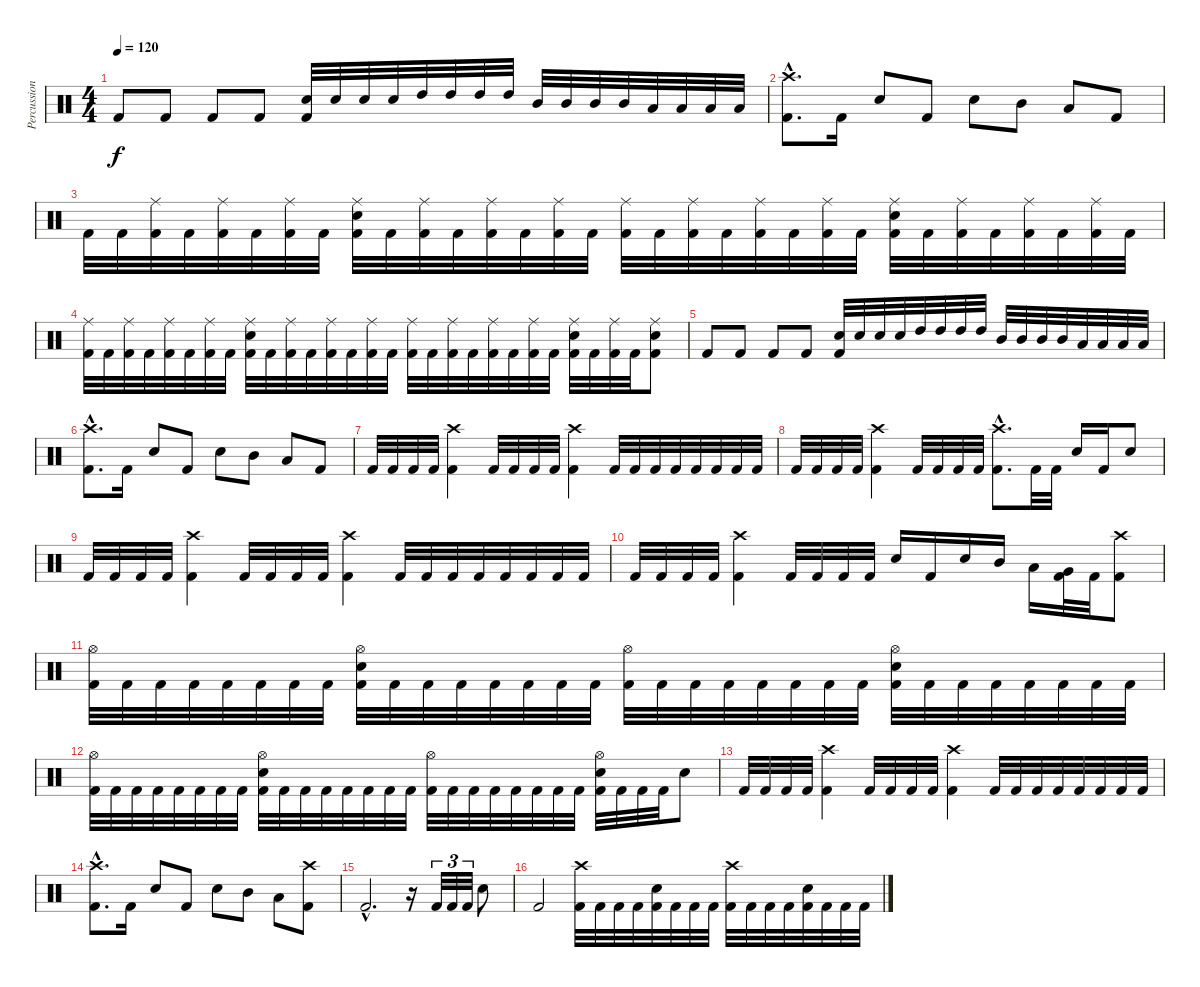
\track ("Percussion" "Percussion") {instrument percussion}
\staff {score}
\articulation defaults
\ts (4 4)
\tempo 120
\clef neutral
\ks c "Kick (hit) 2".8{dy f} "Kick (hit) 2".8 "Kick (hit) 2".8 "Kick (hit) 2".8
("Snare (hit) 2" "Kick (hit) 2").32 "Snare (hit) 2".32 "Snare (hit) 2".32 "Snare (hit) 2".32 "High Tom (hit)".32 "High Tom (hit)".32 "High Tom (hit)".32 "High Tom (hit)".32 "Mid Tom (hit)".32 "Mid Tom (hit)".32 "Mid Tom (hit)".32 "Mid Tom (hit)".32 "Low Tom (hit)".32 "Low Tom (hit)".32 "Low Tom (hit)".32 "Low Tom (hit)".32 |
("Crash high (hit)"{hac} "Kick (hit) 2"{hac}).8{d} "Kick (hit) 2".16 "Snare (hit) 2".8 "Kick (hit) 2".8 "Snare (hit) 2".8 "Mid Tom (hit)".8 "Low Tom (hit)".8 "Kick (hit) 2".8 |
"Kick (hit) 2".32 "Kick (hit) 2".32 ("Ride (middle)" "Kick (hit) 2").32 "Kick (hit) 2".32 ("Ride (middle)" "Kick (hit) 2").32 "Kick (hit) 2".32 ("Ride (middle)" "Kick (hit) 2").32 "Kick (hit) 2".32 ("Ride (middle)" "Snare (hit) 2" "Kick (hit) 2").32 "Kick (hit) 2".32 ("Ride (middle)" "Kick (hit) 2").32 "Kick (hit) 2".32 ("Ride (middle)" "Kick (hit) 2").32 "Kick (hit) 2".32 ("Ride (middle)" "Kick (hit) 2").32 "Kick (hit) 2".32 ("Ride (middle)" "Kick (hit) 2").32 "Kick (hit) 2".32 ("Ride (middle)" "Kick (hit) 2").32 "Kick (hit) 2".32 ("Ride (middle)" "Kick (hit) 2").32 "Kick (hit) 2".32 ("Ride (middle)" "Kick (hit) 2").32 "Kick (hit) 2".32 ("Ride (middle)" "Snare (hit) 2" "Kick (hit) 2").32 "Kick (hit) 2".32 ("Ride (middle)" "Kick (hit) 2").32 "Kick (hit) 2".32 ("Ride (middle)" "Kick (hit) 2").32 "Kick (hit) 2".32 ("Ride (middle)" "Kick (hit) 2").32 "Kick (hit) 2".32 |
("Ride (middle)" "Kick (hit) 2").32 "Kick (hit) 2".32 ("Ride (middle)" "Kick (hit) 2").32 "Kick (hit) 2".32 ("Ride (middle)" "Kick (hit) 2").32 "Kick (hit) 2".32 ("Ride (middle)" "Kick (hit) 2").32 "Kick (hit) 2".32 ("Ride (middle)" "Snare (hit) 2" "Kick (hit) 2").32 "Kick (hit) 2".32 ("Ride (middle)" "Kick (hit) 2").32 "Kick (hit) 2".32 ("Ride (middle)" "Kick (hit) 2").32 "Kick (hit) 2".32 ("Ride (middle)" "Kick (hit) 2").32 "Kick (hit) 2".32 ("Ride (middle)" "Kick (hit) 2").32 "Kick (hit) 2".32 ("Ride (middle)" "Kick (hit) 2").32 "Kick (hit) 2".32 ("Ride (middle)" "Kick (hit) 2").32 "Kick (hit) 2".32 ("Ride (middle)" "Kick (hit) 2").32 "Kick (hit) 2".32 ("Ride (middle)" "Snare (hit) 2" "Kick (hit) 2").32 "Kick (hit) 2".32 ("Ride (middle)" "Kick (hit) 2").32 "Kick (hit) 2".32 ("Ride (middle)" "Snare (hit) 2" "Kick (hit) 2").8 |
"Kick (hit) 2".8 "Kick (hit) 2".8 "Kick (hit) 2".8 "Kick (hit) 2".8 ("Snare (hit) 2" "Kick (hit) 2").32 "Snare (hit) 2".32 "Snare (hit) 2".32 "Snare (hit) 2".32 "High Tom (hit)".32 "High Tom (hit)".32 "High Tom (hit)".32 "High Tom (hit)".32 "Mid Tom (hit)".32 "Mid Tom (hit)".32 "Mid Tom (hit)".32 "Mid Tom (hit)".32 "Low Tom (hit)".32 "Low Tom (hit)".32 "Low Tom (hit)".32 "Low Tom (hit)".32 |
("Crash high (hit)"{hac} "Kick (hit) 2"{hac}).8{d} "Kick (hit) 2".16 "Snare (hit) 2".8 "Kick (hit) 2".8 "Snare (hit) 2".8 "Mid Tom (hit)".8 "Low Tom (hit)".8 "Kick (hit) 2".8 |
"Kick (hit) 2".32 "Kick (hit) 2".32 "Kick (hit) 2".32 "Kick (hit) 2".32 ("Crash high (hit)" "Kick (hit) 2").4 "Kick (hit) 2".32 "Kick (hit) 2".32 "Kick (hit) 2".32 "Kick (hit) 2".32 ("Crash high (hit)" "Kick (hit) 2").4 "Kick (hit) 2".32 "Kick (hit) 2".32 "Kick (hit) 2".32 "Kick (hit) 2".32 "Kick (hit) 2".32 "Kick (hit) 2".32 "Kick (hit) 2".32 "Kick (hit) 2".32 |
"Kick (hit) 2".32 "Kick (hit) 2".32 "Kick (hit) 2".32 "Kick (hit) 2".32 ("Crash high (hit)" "Kick (hit) 2").4 "Kick (hit) 2".32 "Kick (hit) 2".32 "Kick (hit) 2".32 "Kick (hit) 2".32 ("Crash high (hit)"{hac} "Kick (hit) 2"{hac}).8{d} "Kick (hit) 2".32 "Kick (hit) 2".32 "Snare (hit) 2".16 "Kick (hit) 2".16 "Snare (hit) 2".8 |
"Kick (hit) 2".32 "Kick (hit) 2".32 "Kick (hit) 2".32 "Kick (hit) 2".32 ("Crash high (hit)" "Kick (hit) 2").4 "Kick (hit) 2".32 "Kick (hit) 2".32 "Kick (hit) 2".32 "Kick (hit) 2".32 ("Crash high (hit)" "Kick (hit) 2").4 "Kick (hit) 2".32 "Kick (hit) 2".32 "Kick (hit) 2".32 "Kick (hit) 2".32 "Kick (hit) 2".32 "Kick (hit) 2".32 "Kick (hit) 2".32 "Kick (hit) 2".32 |
"Kick (hit) 2".32 "Kick (hit) 2".32 "Kick (hit) 2".32 "Kick (hit) 2".32 ("Crash high (hit)" "Kick (hit) 2").4 "Kick (hit) 2".32 "Kick (hit) 2".32 "Kick (hit) 2".32 "Kick (hit) 2".32 "Snare (hit) 2".16 "Kick (hit) 2".16 "Snare (hit) 2".16 "Mid Tom (hit)".16 "Low Tom (hit)".16 ("Very Low Tom (hit)" "Kick (hit) 2").32 "Kick (hit) 2".32 ("Crash high (hit)" "Kick (hit) 2").8 |
("Hi-Hat (open)" "Kick (hit) 2").32 "Kick (hit) 2".32 "Kick (hit) 2".32 "Kick (hit) 2".32 "Kick (hit) 2".32 "Kick (hit) 2".32 "Kick (hit) 2".32 "Kick (hit) 2".32 ("Hi-Hat (open)" "Snare (hit) 2" "Kick (hit) 2").32 "Kick (hit) 2".32 "Kick (hit) 2".32 "Kick (hit) 2".32 "Kick (hit) 2".32 "Kick (hit) 2".32 "Kick (hit) 2".32 "Kick (hit) 2".32 ("Hi-Hat (open)" "Kick (hit) 2").32 "Kick (hit) 2".32 "Kick (hit) 2".32 "Kick (hit) 2".32 "Kick (hit) 2".32 "Kick (hit) 2".32 "Kick (hit) 2".32 "Kick (hit) 2".32 ("Hi-Hat (open)" "Snare (hit) 2" "Kick (hit) 2").32 "Kick (hit) 2".32 "Kick (hit) 2".32 "Kick (hit) 2".32 "Kick (hit) 2".32 "Kick (hit) 2".32 "Kick (hit) 2".32 "Kick (hit) 2".32 |
("Hi-Hat (open)" "Kick (hit) 2").32 "Kick (hit) 2".32 "Kick (hit) 2".32 "Kick (hit) 2".32 "Kick (hit) 2".32 "Kick (hit) 2".32 "Kick (hit) 2".32 "Kick (hit) 2".32 ("Hi-Hat (open)" "Snare (hit) 2" "Kick (hit) 2").32 "Kick (hit) 2".32 "Kick (hit) 2".32 "Kick (hit) 2".32 "Kick (hit) 2".32 "Kick (hit) 2".32 "Kick (hit) 2".32 "Kick (hit) 2".32 ("Hi-Hat (open)" "Kick (hit) 2").32 "Kick (hit) 2".32 "Kick (hit) 2".32 "Kick (hit) 2".32 "Kick (hit) 2".32 "Kick (hit) 2".32 "Kick (hit) 2".32 "Kick (hit) 2".32 ("Hi-Hat (open)" "Snare (hit) 2" "Kick (hit) 2").32 "Kick (hit) 2".32 "Kick (hit) 2".32 "Kick (hit) 2".32 "Snare (hit) 2".8 |
"Kick (hit) 2".32 "Kick (hit) 2".32 "Kick (hit) 2".32 "Kick (hit) 2".32 ("Crash high (hit)" "Kick (hit) 2").4 "Kick (hit) 2".32 "Kick (hit) 2".32 "Kick (hit) 2".32 "Kick (hit) 2".32 ("Crash high (hit)" "Kick (hit) 2").4 "Kick (hit) 2".32 "Kick (hit) 2".32 "Kick (hit) 2".32 "Kick (hit) 2".32 "Kick (hit) 2".32 "Kick (hit) 2".32 "Kick (hit) 2".32 "Kick (hit) 2".32 |
("Crash high (hit)"{hac} "Kick (hit) 2"{hac}).8{d} "Kick (hit) 2".16 "Snare (hit) 2".8 "Kick (hit) 2".8 "Snare (hit) 2".8 "Mid Tom (hit)".8 "Low Tom (hit)".8 ("Crash high (hit)" "Kick (hit) 2").8 |
"Kick (hit) 2"{hac}.2{d} r.16 "Kick (hit) 2".32{tu (3 2)} "Kick (hit) 2".32{tu (3 2)} "Kick (hit) 2".32{tu (3 2)} "Snare (hit) 2".8 |
"Kick (hit) 2".2 ("Crash high (hit)" "Kick (hit) 2").32 "Kick (hit) 2".32 "Kick (hit) 2".32 "Kick (hit) 2".32 ("Snare (hit) 2" "Kick (hit) 2").32 "Kick (hit) 2".32 "Kick (hit) 2".32 "Kick (hit) 2".32 ("Crash high (hit)" "Kick (hit) 2").32 "Kick (hit) 2".32 "Kick (hit) 2".32 "Kick (hit) 2".32 ("Snare (hit) 2" "Kick (hit) 2").32 "Kick (hit) 2".32 "Kick (hit) 2".32 "Kick (hit) 2".32
